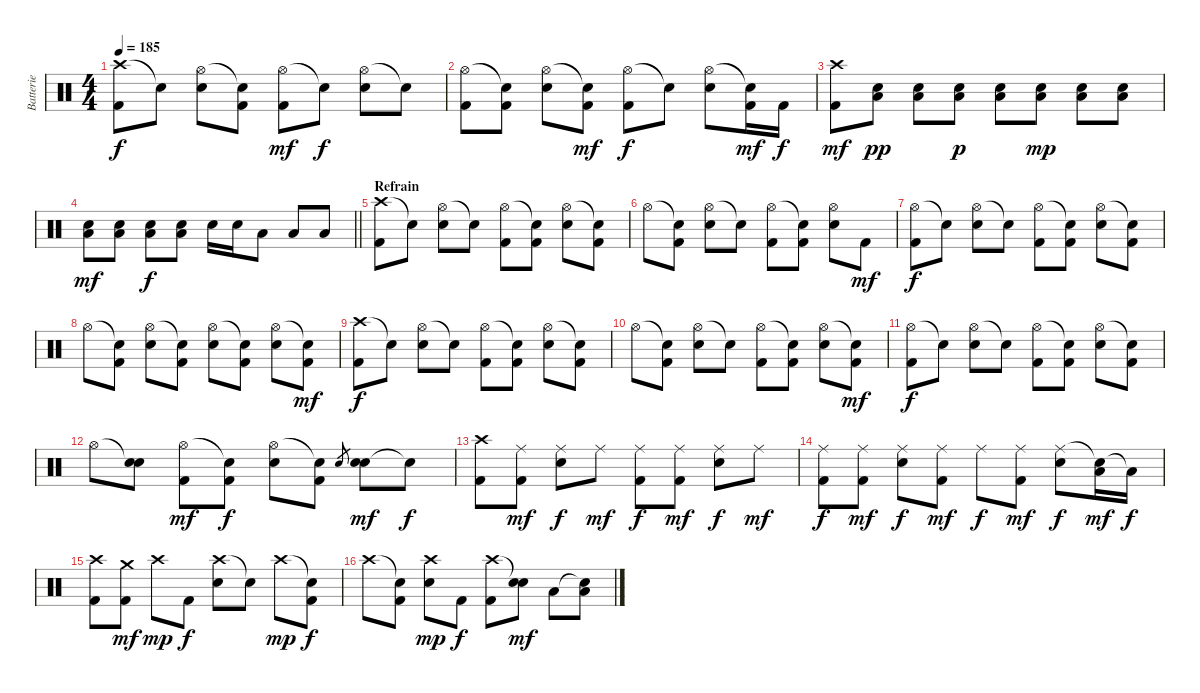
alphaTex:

\track ("Batterie" "Batterie") {instrument percussion}
\staff {score}
\articulation defaults
\ts (4 4)
\tempo 185
\clef neutral
\ks c
("Crash high (hit)" "Kick (hit) 2").8{dy f} "Snare (hit)"{t}.8 ("Hi-Hat (open)" "Electric Snare (hit)").8 ("Snare (hit)"{t} "Kick (hit) 2").8 ("Hi-Hat (open)" "Kick (hit) 2").8{dy mf} "Snare (hit)"{t}.8{dy f} ("Hi-Hat (open)" "Electric Snare (hit)").8 "Snare (hit)"{t}.8 |
("Hi-Hat (open)" "Kick (hit) 2").8 ("Snare (hit)"{t} "Kick (hit) 2").8 ("Hi-Hat (open)" "Electric Snare (hit)").8 ("Snare (hit)"{t} "Kick (hit) 2").8{dy mf} ("Hi-Hat (open)" "Kick (hit) 2").8{dy f} "Snare (hit)"{t}.8 ("Hi-Hat (open)" "Electric Snare (hit)").8 ("Snare (hit)"{t} "Kick (hit) 2").16{dy mf} "Kick (hit) 2".16{dy f} |
("Crash high (hit)" "Kick (hit) 2").8{dy mf} ("Electric Snare (hit)" "Low Floor Tom (hit)").8{dy pp} ("Electric Snare (hit)" "Low Floor Tom (hit)").8 ("Electric Snare (hit)" "Low Floor Tom (hit)").8{dy p} ("Electric Snare (hit)" "Low Floor Tom (hit)").8 ("Electric Snare (hit)" "Low Floor Tom (hit)").8{dy mp} ("Electric Snare (hit)" "Low Floor Tom (hit)").8 ("Electric Snare (hit)" "Low Floor Tom (hit)").8 |
\barLineRight lightlight
("Electric Snare (hit)" "Low Floor Tom (hit)").8{dy mf} ("Electric Snare (hit)" "Low Floor Tom (hit)").8 ("Electric Snare (hit)" "Low Floor Tom (hit)").8{dy f} ("Electric Snare (hit)" "Low Floor Tom (hit)").8 "Electric Snare (hit)".16 "Electric Snare (hit)".16 "Low Tom (hit)".8 "Low Tom (hit)".8 "Low Floor Tom (hit)".8 |
\section ("" "Refrain")
("Crash high (hit)" "Kick (hit) 2").8 "Snare (hit)"{t}.8 ("Hi-Hat (open)" "Electric Snare (hit)").8 "Snare (hit)"{t}.8 ("Hi-Hat (open)" "Kick (hit) 2").8 ("Snare (hit)"{t} "Kick (hit) 2").8 ("Hi-Hat (open)" "Electric Snare (hit)").8 ("Snare (hit)"{t} "Kick (hit) 2").8 |
"Hi-Hat (open)".8 ("Snare (hit)"{t} "Kick (hit) 2").8 ("Hi-Hat (open)" "Electric Snare (hit)").8 "Snare (hit)"{t}.8 ("Hi-Hat (open)" "Kick (hit) 2").8 ("Snare (hit)"{t} "Kick (hit) 2").8 ("Hi-Hat (open)" "Electric Snare (hit)").8 "Kick (hit) 2".8{dy mf} |
("Hi-Hat (open)" "Kick (hit) 2").8{dy f} "Snare (hit)"{t}.8 ("Hi-Hat (open)" "Electric Snare (hit)").8 "Snare (hit)"{t}.8 ("Hi-Hat (open)" "Kick (hit) 2").8 ("Snare (hit)"{t} "Kick (hit) 2").8 ("Hi-Hat (open)" "Electric Snare (hit)").8 ("Snare (hit)"{t} "Kick (hit) 2").8 |
"Hi-Hat (open)".8 ("Snare (hit)"{t} "Kick (hit) 2").8 ("Hi-Hat (open)" "Electric Snare (hit)").8 ("Snare (hit)"{t} "Kick (hit) 2").8 ("Hi-Hat (open)" "Electric Snare (hit)").8 ("Snare (hit)"{t} "Kick (hit) 2").8 ("Hi-Hat (open)" "Electric Snare (hit)").8 ("Snare (hit)"{t} "Kick (hit) 2").8{dy mf} |
("Crash high (hit)" "Kick (hit) 2").8{dy f} "Snare (hit)"{t}.8 ("Hi-Hat (open)" "Electric Snare (hit)").8 "Snare (hit)"{t}.8 ("Hi-Hat (open)" "Kick (hit) 2").8 ("Snare (hit)"{t} "Kick (hit) 2").8 ("Hi-Hat (open)" "Electric Snare (hit)").8 ("Snare (hit)"{t} "Kick (hit) 2").8 |
"Hi-Hat (open)".8 ("Snare (hit)"{t} "Kick (hit) 2").8 ("Hi-Hat (open)" "Electric Snare (hit)").8 "Snare (hit)"{t}.8 ("Hi-Hat (open)" "Kick (hit) 2").8 ("Snare (hit)"{t} "Kick (hit) 2").8 ("Hi-Hat (open)" "Electric Snare (hit)").8 ("Snare (hit)"{t} "Kick (hit) 2").8{dy mf} |
("Hi-Hat (open)" "Kick (hit) 2").8{dy f} "Snare (hit)"{t}.8 ("Hi-Hat (open)" "Electric Snare (hit)").8 "Snare (hit)"{t}.8 ("Hi-Hat (open)" "Kick (hit) 2").8 ("Snare (hit)"{t} "Kick (hit) 2").8 ("Hi-Hat (open)" "Electric Snare (hit)").8 ("Snare (hit)"{t} "Kick (hit) 2").8 |
"Hi-Hat (open)".8 ("Snare (hit)"{t} "Electric Snare (hit)").8 ("Hi-Hat (open)" "Kick (hit) 2").8{dy mf} ("Snare (hit)"{t} "Kick (hit) 2").8{dy f} ("Hi-Hat (open)" "Electric Snare (hit)").8 ("Snare (hit)"{t} "Kick (hit) 2").8 "Electric Snare (hit)".8{gr} ("Electric Snare (hit)" "Electric Snare (hit)").8{dy mf} "Snare (hit)"{t}.8{dy f} |
("Crash high (hit)" "Kick (hit) 2").8 ("Ride (middle)" "Kick (hit) 2").8{dy mf} ("Ride (middle)" "Electric Snare (hit)").8{dy f} "Ride (middle)".8{dy mf} ("Ride (middle)" "Kick (hit) 2").8{dy f} ("Ride (middle)" "Kick (hit) 2").8{dy mf} ("Ride (middle)" "Electric Snare (hit)").8{dy f} "Ride (middle)".8{dy mf} |
("Ride (middle)" "Kick (hit) 2").8{dy f} ("Ride (middle)" "Kick (hit) 2").8{dy mf} ("Ride (middle)" "Electric Snare (hit)").8{dy f} ("Ride (middle)" "Kick (hit) 2").8{dy mf} "Ride (middle)".8{dy f} ("Ride (middle)" "Kick (hit) 2").8{dy mf} ("Ride (middle)" "Electric Snare (hit)").8{dy f} ("Snare (hit)"{t} "Low Floor Tom (hit)").16{dy mf} "Low Floor Tom (hit)"{t}.16{dy f} |
("Crash high (hit)" "Kick (hit) 2").8 ("Crash medium (hit)" "Kick (hit) 2").8{dy mf} "Crash high (hit)".8{dy mp} "Kick (hit) 2".8{dy f} ("Crash high (hit)" "Electric Snare (hit)").8 "Snare (hit)"{t}.8 "Crash high (hit)".8{dy mp} ("Snare (hit)"{t} "Kick (hit) 2").8{dy f} |
"Crash high (hit)".8 ("Snare (hit)"{t} "Kick (hit) 2").8 ("Crash high (hit)" "Electric Snare (hit)").8{dy mp} "Kick (hit) 2".8{dy f} ("Crash high (hit)" "Kick (hit) 2").8 ("Snare (hit)"{t} "Electric Snare (hit)").8{dy mf} "Low Tom (hit)".8 ("Snare (hit)"{t} "Low Floor Tom (hit)").8
